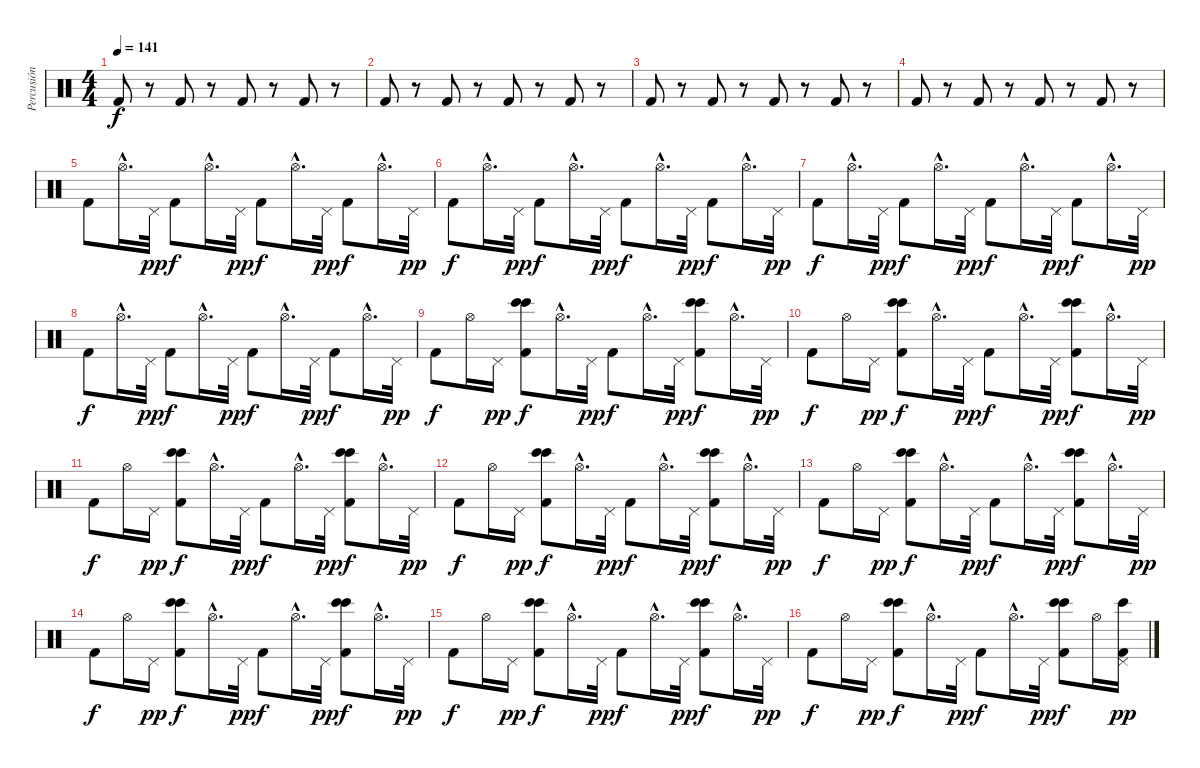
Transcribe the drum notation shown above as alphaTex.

\track ("Percusión" "Percusión") {instrument percussion}
\staff {score}
\articulation defaults
\ts (4 4)
\tempo 141
\clef neutral
\ks c "Kick (hit) 2".8{dy f}
r.8 "Kick (hit) 2".8 r.8 "Kick (hit) 2".8 r.8 "Kick (hit) 2".8 r.8 |
"Kick (hit) 2".8 r.8 "Kick (hit) 2".8 r.8 "Kick (hit) 2".8 r.8 "Kick (hit) 2".8 r.8 |
"Kick (hit) 2".8 r.8 "Kick (hit) 2".8 r.8 "Kick (hit) 2".8 r.8 "Kick (hit) 2".8 r.8 |
"Kick (hit) 2".8 r.8 "Kick (hit) 2".8 r.8 "Kick (hit) 2".8 r.8 "Kick (hit) 2".8 r.8 |
"Kick (hit) 2".8 "Hi-Hat (open)"{hac}.16{d} "Pedal Hi-Hat (hit)".32{dy pp} "Kick (hit) 2".8{dy f} "Hi-Hat (open)"{hac}.16{d} "Pedal Hi-Hat (hit)".32{dy pp} "Kick (hit) 2".8{dy f} "Hi-Hat (open)"{hac}.16{d} "Pedal Hi-Hat (hit)".32{dy pp} "Kick (hit) 2".8{dy f} "Hi-Hat (open)"{hac}.16{d} "Pedal Hi-Hat (hit)".32{dy pp} |
"Kick (hit) 2".8{dy f} "Hi-Hat (open)"{hac}.16{d} "Pedal Hi-Hat (hit)".32{dy pp} "Kick (hit) 2".8{dy f} "Hi-Hat (open)"{hac}.16{d} "Pedal Hi-Hat (hit)".32{dy pp} "Kick (hit) 2".8{dy f} "Hi-Hat (open)"{hac}.16{d} "Pedal Hi-Hat (hit)".32{dy pp} "Kick (hit) 2".8{dy f} "Hi-Hat (open)"{hac}.16{d} "Pedal Hi-Hat (hit)".32{dy pp} |
"Kick (hit) 2".8{dy f} "Hi-Hat (open)"{hac}.16{d} "Pedal Hi-Hat (hit)".32{dy pp} "Kick (hit) 2".8{dy f} "Hi-Hat (open)"{hac}.16{d} "Pedal Hi-Hat (hit)".32{dy pp} "Kick (hit) 2".8{dy f} "Hi-Hat (open)"{hac}.16{d} "Pedal Hi-Hat (hit)".32{dy pp} "Kick (hit) 2".8{dy f} "Hi-Hat (open)"{hac}.16{d} "Pedal Hi-Hat (hit)".32{dy pp} |
"Kick (hit) 2".8{dy f} "Hi-Hat (open)"{hac}.16{d} "Pedal Hi-Hat (hit)".32{dy pp} "Kick (hit) 2".8{dy f} "Hi-Hat (open)"{hac}.16{d} "Pedal Hi-Hat (hit)".32{dy pp} "Kick (hit) 2".8{dy f} "Hi-Hat (open)"{hac}.16{d} "Pedal Hi-Hat (hit)".32{dy pp} "Kick (hit) 2".8{dy f} "Hi-Hat (open)"{hac}.16{d} "Pedal Hi-Hat (hit)".32{dy pp} |
"Kick (hit) 2".8{dy f} "Hi-Hat (open)".16 "Pedal Hi-Hat (hit)".16{dy pp} ("Bongo High (hit)" "Bongo High (hit)" "Kick (hit) 2").8{dy f} "Hi-Hat (open)"{hac}.16{d} "Pedal Hi-Hat (hit)".32{dy pp} "Kick (hit) 2".8{dy f} "Hi-Hat (open)"{hac}.16{d} "Pedal Hi-Hat (hit)".32{dy pp} ("Bongo High (hit)" "Bongo High (hit)" "Kick (hit) 2").8{dy f} "Hi-Hat (open)"{hac}.16{d} "Pedal Hi-Hat (hit)".32{dy pp} |
"Kick (hit) 2".8{dy f} "Hi-Hat (open)".16 "Pedal Hi-Hat (hit)".16{dy pp} ("Bongo High (hit)" "Bongo High (hit)" "Kick (hit) 2").8{dy f} "Hi-Hat (open)"{hac}.16{d} "Pedal Hi-Hat (hit)".32{dy pp} "Kick (hit) 2".8{dy f} "Hi-Hat (open)"{hac}.16{d} "Pedal Hi-Hat (hit)".32{dy pp} ("Bongo High (hit)" "Bongo High (hit)" "Kick (hit) 2").8{dy f} "Hi-Hat (open)"{hac}.16{d} "Pedal Hi-Hat (hit)".32{dy pp} |
"Kick (hit) 2".8{dy f} "Hi-Hat (open)".16 "Pedal Hi-Hat (hit)".16{dy pp} ("Bongo High (hit)" "Bongo High (hit)" "Kick (hit) 2").8{dy f} "Hi-Hat (open)"{hac}.16{d} "Pedal Hi-Hat (hit)".32{dy pp} "Kick (hit) 2".8{dy f} "Hi-Hat (open)"{hac}.16{d} "Pedal Hi-Hat (hit)".32{dy pp} ("Bongo High (hit)" "Bongo High (hit)" "Kick (hit) 2").8{dy f} "Hi-Hat (open)"{hac}.16{d} "Pedal Hi-Hat (hit)".32{dy pp} |
"Kick (hit) 2".8{dy f} "Hi-Hat (open)".16 "Pedal Hi-Hat (hit)".16{dy pp} ("Bongo High (hit)" "Bongo High (hit)" "Kick (hit) 2").8{dy f} "Hi-Hat (open)"{hac}.16{d} "Pedal Hi-Hat (hit)".32{dy pp} "Kick (hit) 2".8{dy f} "Hi-Hat (open)"{hac}.16{d} "Pedal Hi-Hat (hit)".32{dy pp} ("Bongo High (hit)" "Bongo High (hit)" "Kick (hit) 2").8{dy f} "Hi-Hat (open)"{hac}.16{d} "Pedal Hi-Hat (hit)".32{dy pp} |
"Kick (hit) 2".8{dy f} "Hi-Hat (open)".16 "Pedal Hi-Hat (hit)".16{dy pp} ("Bongo High (hit)" "Bongo High (hit)" "Kick (hit) 2").8{dy f} "Hi-Hat (open)"{hac}.16{d} "Pedal Hi-Hat (hit)".32{dy pp} "Kick (hit) 2".8{dy f} "Hi-Hat (open)"{hac}.16{d} "Pedal Hi-Hat (hit)".32{dy pp} ("Bongo High (hit)" "Bongo High (hit)" "Kick (hit) 2").8{dy f} "Hi-Hat (open)"{hac}.16{d} "Pedal Hi-Hat (hit)".32{dy pp} |
"Kick (hit) 2".8{dy f} "Hi-Hat (open)".16 "Pedal Hi-Hat (hit)".16{dy pp} ("Bongo High (hit)" "Bongo High (hit)" "Kick (hit) 2").8{dy f} "Hi-Hat (open)"{hac}.16{d} "Pedal Hi-Hat (hit)".32{dy pp} "Kick (hit) 2".8{dy f} "Hi-Hat (open)"{hac}.16{d} "Pedal Hi-Hat (hit)".32{dy pp} ("Bongo High (hit)" "Bongo High (hit)" "Kick (hit) 2").8{dy f} "Hi-Hat (open)"{hac}.16{d} "Pedal Hi-Hat (hit)".32{dy pp} |
"Kick (hit) 2".8{dy f} "Hi-Hat (open)".16 "Pedal Hi-Hat (hit)".16{dy pp} ("Bongo High (hit)" "Bongo High (hit)" "Kick (hit) 2").8{dy f} "Hi-Hat (open)"{hac}.16{d} "Pedal Hi-Hat (hit)".32{dy pp} "Kick (hit) 2".8{dy f} "Hi-Hat (open)"{hac}.16{d} "Pedal Hi-Hat (hit)".32{dy pp} ("Bongo High (hit)" "Bongo High (hit)" "Kick (hit) 2").8{dy f} "Hi-Hat (open)"{hac}.16{d} "Pedal Hi-Hat (hit)".32{dy pp} |
"Kick (hit) 2".8{dy f} "Hi-Hat (open)".16 "Pedal Hi-Hat (hit)".16{dy pp} ("Bongo High (hit)" "Bongo High (hit)" "Kick (hit) 2").8{dy f} "Hi-Hat (open)"{hac}.16{d} "Pedal Hi-Hat (hit)".32{dy pp} "Kick (hit) 2".8{dy f} "Hi-Hat (open)"{hac}.16{d} "Pedal Hi-Hat (hit)".32{dy pp} ("Bongo High (hit)" "Bongo High (hit)" "Kick (hit) 2").8{dy f} "Hi-Hat (open)".16 ("Pedal Hi-Hat (hit)" "Bongo High (hit)" "Kick (hit) 2").16{dy pp}
